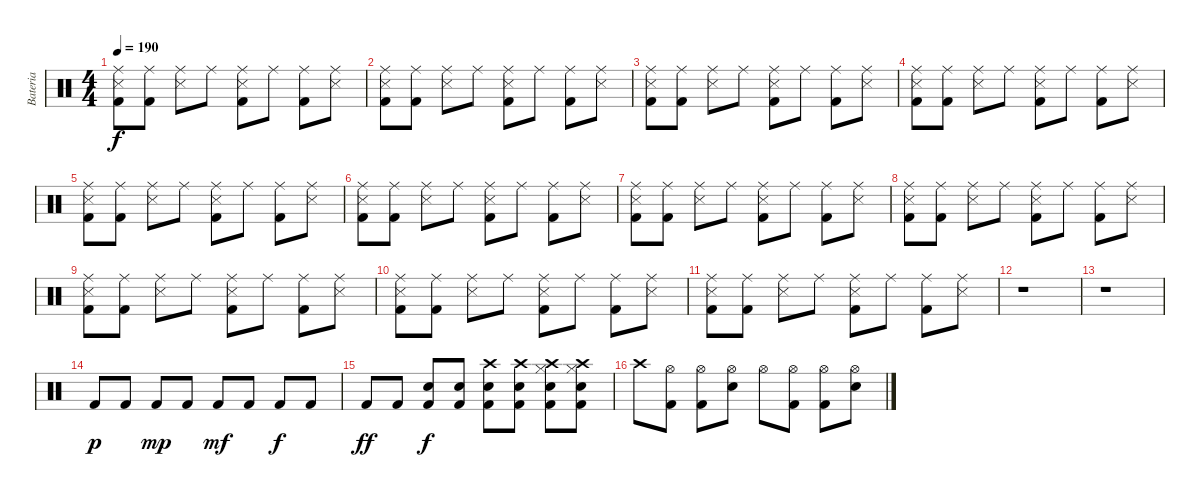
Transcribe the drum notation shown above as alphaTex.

\track ("Bateria" "Bateria") {instrument percussion}
\staff {score}
\articulation defaults
\ts (4 4)
\tempo 190
\clef neutral
\ks c
("Ride (middle)" "Snare (side stick) 3" "Kick (hit) 2").8{dy f} ("Ride (middle)" "Kick (hit) 2").8 ("Ride (middle)" "Snare (side stick) 3").8 "Ride (middle)".8 ("Ride (middle)" "Snare (side stick) 3" "Kick (hit) 2").8 "Ride (middle)".8 ("Ride (middle)" "Kick (hit) 2").8 ("Ride (middle)" "Snare (side stick) 3").8 |
("Ride (middle)" "Snare (side stick) 3" "Kick (hit) 2").8 ("Ride (middle)" "Kick (hit) 2").8 ("Ride (middle)" "Snare (side stick) 3").8 "Ride (middle)".8 ("Ride (middle)" "Snare (side stick) 3" "Kick (hit) 2").8 "Ride (middle)".8 ("Ride (middle)" "Kick (hit) 2").8 ("Ride (middle)" "Snare (side stick) 3").8 |
("Ride (middle)" "Snare (side stick) 3" "Kick (hit) 2").8 ("Ride (middle)" "Kick (hit) 2").8 ("Ride (middle)" "Snare (side stick) 3").8 "Ride (middle)".8 ("Ride (middle)" "Snare (side stick) 3" "Kick (hit) 2").8 "Ride (middle)".8 ("Ride (middle)" "Kick (hit) 2").8 ("Ride (middle)" "Snare (side stick) 3").8 |
("Ride (middle)" "Snare (side stick) 3" "Kick (hit) 2").8 ("Ride (middle)" "Kick (hit) 2").8 ("Ride (middle)" "Snare (side stick) 3").8 "Ride (middle)".8 ("Ride (middle)" "Snare (side stick) 3" "Kick (hit) 2").8 "Ride (middle)".8 ("Ride (middle)" "Kick (hit) 2").8 ("Ride (middle)" "Snare (side stick) 3").8 |
("Ride (middle)" "Snare (side stick) 3" "Kick (hit) 2").8 ("Ride (middle)" "Kick (hit) 2").8 ("Ride (middle)" "Snare (side stick) 3").8 "Ride (middle)".8 ("Ride (middle)" "Snare (side stick) 3" "Kick (hit) 2").8 "Ride (middle)".8 ("Ride (middle)" "Kick (hit) 2").8 ("Ride (middle)" "Snare (side stick) 3").8 |
("Ride (middle)" "Snare (side stick) 3" "Kick (hit) 2").8 ("Ride (middle)" "Kick (hit) 2").8 ("Ride (middle)" "Snare (side stick) 3").8 "Ride (middle)".8 ("Ride (middle)" "Snare (side stick) 3" "Kick (hit) 2").8 "Ride (middle)".8 ("Ride (middle)" "Kick (hit) 2").8 ("Ride (middle)" "Snare (side stick) 3").8 |
("Ride (middle)" "Snare (side stick) 3" "Kick (hit) 2").8 ("Ride (middle)" "Kick (hit) 2").8 ("Ride (middle)" "Snare (side stick) 3").8 "Ride (middle)".8 ("Ride (middle)" "Snare (side stick) 3" "Kick (hit) 2").8 "Ride (middle)".8 ("Ride (middle)" "Kick (hit) 2").8 ("Ride (middle)" "Snare (side stick) 3").8 |
("Ride (middle)" "Snare (side stick) 3" "Kick (hit) 2").8 ("Ride (middle)" "Kick (hit) 2").8 ("Ride (middle)" "Snare (side stick) 3").8 "Ride (middle)".8 ("Ride (middle)" "Snare (side stick) 3" "Kick (hit) 2").8 "Ride (middle)".8 ("Ride (middle)" "Kick (hit) 2").8 ("Ride (middle)" "Snare (side stick) 3").8 |
("Ride (middle)" "Snare (side stick) 3" "Kick (hit) 2").8 ("Ride (middle)" "Kick (hit) 2").8 ("Ride (middle)" "Snare (side stick) 3").8 "Ride (middle)".8 ("Ride (middle)" "Snare (side stick) 3" "Kick (hit) 2").8 "Ride (middle)".8 ("Ride (middle)" "Kick (hit) 2").8 ("Ride (middle)" "Snare (side stick) 3").8 |
("Ride (middle)" "Snare (side stick) 3" "Kick (hit) 2").8 ("Ride (middle)" "Kick (hit) 2").8 ("Ride (middle)" "Snare (side stick) 3").8 "Ride (middle)".8 ("Ride (middle)" "Snare (side stick) 3" "Kick (hit) 2").8 "Ride (middle)".8 ("Ride (middle)" "Kick (hit) 2").8 ("Ride (middle)" "Snare (side stick) 3").8 |
("Ride (middle)" "Snare (side stick) 3" "Kick (hit) 2").8 ("Ride (middle)" "Kick (hit) 2").8 ("Ride (middle)" "Snare (side stick) 3").8 "Ride (middle)".8 ("Ride (middle)" "Snare (side stick) 3" "Kick (hit) 2").8 "Ride (middle)".8 ("Ride (middle)" "Kick (hit) 2").8 ("Ride (middle)" "Snare (side stick) 3").8 |
r.1 |
r.1 |
"Kick (hit) 2".8{dy p} "Kick (hit) 2".8 "Kick (hit) 2".8{dy mp} "Kick (hit) 2".8 "Kick (hit) 2".8{dy mf} "Kick (hit) 2".8 "Kick (hit) 2".8{dy f} "Kick (hit) 2".8 |
"Kick (hit) 2".8{dy ff} "Kick (hit) 2".8 ("Snare (hit) 2" "Kick (hit) 2").8{dy f} ("Snare (hit) 2" "Kick (hit) 2").8 ("Snare (hit) 2" "Crash high (hit)" "Kick (hit) 2").8 ("Snare (hit) 2" "Crash high (hit)" "Kick (hit) 2").8 ("Hi-Hat (closed)" "Snare (hit) 2" "Crash high (hit)" "Kick (hit) 2").8 ("Hi-Hat (closed)" "Snare (hit) 2" "Crash high (hit)" "Kick (hit) 2").8 |
"Crash high (hit)".8 ("Hi-Hat (open)" "Kick (hit) 2").8 ("Hi-Hat (open)" "Kick (hit) 2").8 ("Hi-Hat (open)" "Electric Snare (hit)").8 "Hi-Hat (open)".8 ("Hi-Hat (open)" "Kick (hit) 2").8 ("Hi-Hat (open)" "Kick (hit) 2").8 ("Hi-Hat (open)" "Electric Snare (hit)").8
